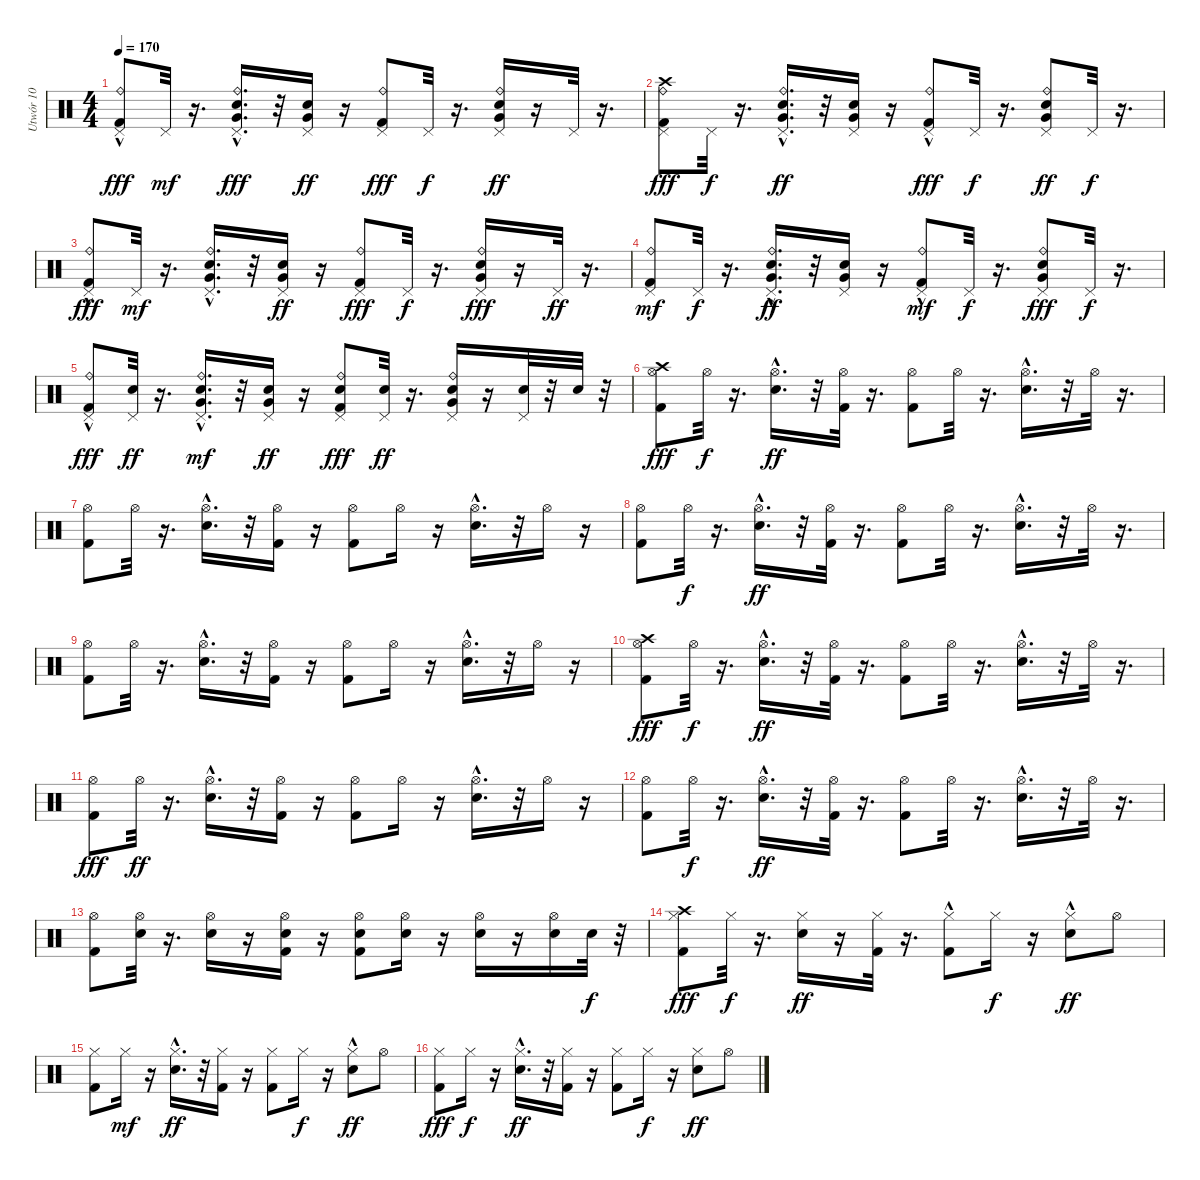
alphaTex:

\track ("Utwór 10" "Utwór 10") {instrument percussion}
\staff {score}
\articulation defaults
\ts (4 4)
\tempo 170
\clef neutral
\ks c
("Kick (hit) 2"{hac} "Pedal Hi-Hat (hit)" "Ride (bell)"{hac}).8{dy fff} "Pedal Hi-Hat (hit)".32{dy mf} r.16{d} ("Very Low Tom (hit)" "Snare (hit) 2" "Pedal Hi-Hat (hit)" "Ride (bell)"{hac}).16{d dy fff} r.32 ("Snare (hit) 2" "Pedal Hi-Hat (hit)" "Very Low Tom (hit)").16{dy ff} r.16 ("Ride (bell)" "Pedal Hi-Hat (hit)" "Kick (hit) 2").8{dy fff} "Pedal Hi-Hat (hit)".32{dy f} r.16{d} ("Pedal Hi-Hat (hit)" "Ride (bell)" "Snare (hit) 2" "Very Low Tom (hit)").16{dy ff} r.16 "Pedal Hi-Hat (hit)".32 r.16{d} |
("Crash high (hit)" "Kick (hit) 2" "Pedal Hi-Hat (hit)" "Ride (bell)").8{dy fff} "Pedal Hi-Hat (hit)".32{dy f} r.16{d} ("Ride (bell)"{hac} "Very Low Tom (hit)" "Pedal Hi-Hat (hit)" "Snare (hit) 2").16{d dy ff} r.32 ("Pedal Hi-Hat (hit)" "Snare (hit) 2" "Very Low Tom (hit)").16 r.16 ("Kick (hit) 2" "Pedal Hi-Hat (hit)" "Ride (bell)"{hac}).8{dy fff} "Pedal Hi-Hat (hit)".32{dy f} r.16{d} ("Pedal Hi-Hat (hit)" "Very Low Tom (hit)" "Ride (bell)" "Snare (hit) 2").8{dy ff} "Pedal Hi-Hat (hit)".32{dy f} r.16{d} |
("Pedal Hi-Hat (hit)" "Kick (hit) 2"{hac} "Ride (bell)"{hac}).8{dy fff} "Pedal Hi-Hat (hit)".32{dy mf} r.16{d} ("Snare (hit) 2" "Pedal Hi-Hat (hit)" "Ride (bell)"{hac} "Very Low Tom (hit)").16{d} r.32 ("Snare (hit) 2" "Very Low Tom (hit)" "Pedal Hi-Hat (hit)").16{dy ff} r.16 ("Ride (bell)" "Kick (hit) 2" "Pedal Hi-Hat (hit)").8{dy fff} "Pedal Hi-Hat (hit)".32{dy f} r.16{d} ("Snare (hit) 2" "Pedal Hi-Hat (hit)" "Very Low Tom (hit)" "Ride (bell)").16{dy fff} r.16 "Pedal Hi-Hat (hit)".32{dy ff} r.16{d} |
("Ride (bell)" "Kick (hit) 2" "Pedal Hi-Hat (hit)").8{dy mf} "Pedal Hi-Hat (hit)".32{dy f} r.16{d} ("Snare (hit) 2" "Very Low Tom (hit)" "Ride (bell)"{hac} "Pedal Hi-Hat (hit)").16{d dy ff} r.32 ("Very Low Tom (hit)" "Pedal Hi-Hat (hit)" "Snare (hit) 2").16 r.16 ("Ride (bell)"{hac} "Kick (hit) 2" "Pedal Hi-Hat (hit)").8{dy mf} "Pedal Hi-Hat (hit)".32{dy f} r.16{d} ("Snare (hit) 2" "Pedal Hi-Hat (hit)" "Very Low Tom (hit)" "Ride (bell)").8{dy fff} "Pedal Hi-Hat (hit)".32{dy f} r.16{d} |
("Kick (hit) 2"{hac} "Ride (bell)"{hac} "Pedal Hi-Hat (hit)").8{dy fff} ("Pedal Hi-Hat (hit)" "Snare (hit) 2").32{dy ff} r.16{d} ("Snare (hit) 2" "Ride (bell)"{hac} "Pedal Hi-Hat (hit)" "Very Low Tom (hit)").16{d dy mf} r.32 ("Snare (hit) 2" "Pedal Hi-Hat (hit)" "Very Low Tom (hit)").16{dy ff} r.16 ("Kick (hit) 2" "Snare (hit) 2" "Ride (bell)" "Pedal Hi-Hat (hit)").8{dy fff} ("Snare (hit) 2" "Pedal Hi-Hat (hit)").32{dy ff} r.16{d} ("Pedal Hi-Hat (hit)" "Ride (bell)" "Very Low Tom (hit)" "Snare (hit) 2").16 r.16 ("Pedal Hi-Hat (hit)" "Snare (hit) 2").32 r.32 "Snare (hit) 2".32 r.32 |
("Crash high (hit)" "Hi-Hat (open)" "Kick (hit) 2").8{dy fff} "Hi-Hat (open)".32{dy f} r.16{d} ("Snare (hit) 2"{hac} "Hi-Hat (open)").16{d dy ff} r.32 ("Hi-Hat (open)" "Kick (hit) 2").32 r.16{d} ("Hi-Hat (open)" "Kick (hit) 2").8 "Hi-Hat (open)".32 r.16{d} ("Snare (hit) 2"{hac} "Hi-Hat (open)").16{d} r.32 "Hi-Hat (open)".32 r.16{d} |
("Kick (hit) 2" "Hi-Hat (open)").8 "Hi-Hat (open)".32 r.16{d} ("Snare (hit) 2"{hac} "Hi-Hat (open)").16{d} r.32 ("Hi-Hat (open)" "Kick (hit) 2").16 r.16 ("Kick (hit) 2" "Hi-Hat (open)").8 "Hi-Hat (open)".16 r.16 ("Hi-Hat (open)" "Snare (hit) 2"{hac}).16{d} r.32 "Hi-Hat (open)".16 r.16 |
("Kick (hit) 2" "Hi-Hat (open)").8 "Hi-Hat (open)".32{dy f} r.16{d} ("Snare (hit) 2"{hac} "Hi-Hat (open)").16{d dy ff} r.32 ("Kick (hit) 2" "Hi-Hat (open)").32 r.16{d} ("Kick (hit) 2" "Hi-Hat (open)").8 "Hi-Hat (open)".32 r.16{d} ("Snare (hit) 2"{hac} "Hi-Hat (open)").16{d} r.32 "Hi-Hat (open)".32 r.16{d} |
("Kick (hit) 2" "Hi-Hat (open)").8 "Hi-Hat (open)".32 r.16{d} ("Snare (hit) 2"{hac} "Hi-Hat (open)").16{d} r.32 ("Kick (hit) 2" "Hi-Hat (open)").16 r.16 ("Kick (hit) 2" "Hi-Hat (open)").8 "Hi-Hat (open)".16 r.16 ("Hi-Hat (open)" "Snare (hit) 2"{hac}).16{d} r.32 "Hi-Hat (open)".16 r.16 |
("Crash high (hit)" "Hi-Hat (open)" "Kick (hit) 2").8{dy fff} "Hi-Hat (open)".32{dy f} r.16{d} ("Snare (hit) 2"{hac} "Hi-Hat (open)").16{d dy ff} r.32 ("Hi-Hat (open)" "Kick (hit) 2").32 r.16{d} ("Hi-Hat (open)" "Kick (hit) 2").8 "Hi-Hat (open)".32 r.16{d} ("Hi-Hat (open)" "Snare (hit) 2"{hac}).16{d} r.32 "Hi-Hat (open)".32 r.16{d} |
("Hi-Hat (open)" "Kick (hit) 2").8{dy fff} "Hi-Hat (open)".32{dy ff} r.16{d} ("Hi-Hat (open)" "Snare (hit) 2"{hac}).16{d} r.32 ("Kick (hit) 2" "Hi-Hat (open)").16 r.16 ("Kick (hit) 2" "Hi-Hat (open)").8 "Hi-Hat (open)".16 r.16 ("Snare (hit) 2"{hac} "Hi-Hat (open)").16{d} r.32 "Hi-Hat (open)".16 r.16 |
("Kick (hit) 2" "Hi-Hat (open)").8 "Hi-Hat (open)".32{dy f} r.16{d} ("Snare (hit) 2"{hac} "Hi-Hat (open)").16{d dy ff} r.32 ("Hi-Hat (open)" "Kick (hit) 2").32 r.16{d} ("Kick (hit) 2" "Hi-Hat (open)").8 "Hi-Hat (open)".32 r.16{d} ("Hi-Hat (open)" "Snare (hit) 2"{hac}).16{d} r.32 "Hi-Hat (open)".32 r.16{d} |
("Kick (hit) 2" "Hi-Hat (open)").8 ("Snare (hit) 2" "Hi-Hat (open)").32 r.16{d} ("Hi-Hat (open)" "Snare (hit) 2").16 r.16 ("Kick (hit) 2" "Snare (hit) 2" "Hi-Hat (open)").16 r.16 ("Snare (hit) 2" "Kick (hit) 2" "Hi-Hat (open)").8 ("Hi-Hat (open)" "Snare (hit) 2").16 r.16 ("Hi-Hat (open)" "Snare (hit) 2").16 r.16 ("Hi-Hat (open)" "Snare (hit) 2").16 "Snare (hit) 2".32{dy f} r.32 |
("Hi-Hat (closed)" "Kick (hit) 2" "Crash high (hit)").8{dy fff} "Hi-Hat (closed)".32{dy f} r.16{d} ("Snare (hit) 2" "Hi-Hat (closed)").16{dy ff} r.16 ("Kick (hit) 2" "Hi-Hat (closed)").32 r.16{d} ("Kick (hit) 2"{hac} "Hi-Hat (closed)").8 "Hi-Hat (closed)".16{dy f} r.16 ("Snare (hit) 2" "Hi-Hat (closed)"{hac}).8{dy ff} "Hi-Hat (open)".8 |
("Hi-Hat (closed)" "Kick (hit) 2").8 "Hi-Hat (closed)".16{dy mf} r.16 ("Hi-Hat (closed)" "Snare (hit) 2"{hac}).16{d dy ff} r.32 ("Kick (hit) 2" "Hi-Hat (closed)").16 r.16 ("Kick (hit) 2" "Hi-Hat (closed)").8 "Hi-Hat (closed)".16{dy f} r.16 ("Hi-Hat (closed)" "Snare (hit) 2"{hac}).8{dy ff} "Hi-Hat (open)".8 |
("Hi-Hat (closed)" "Kick (hit) 2").8{dy fff} "Hi-Hat (closed)".16{dy f} r.16 ("Snare (hit) 2"{hac} "Hi-Hat (closed)").16{d dy ff} r.32 ("Hi-Hat (closed)" "Kick (hit) 2").16 r.16 ("Kick (hit) 2" "Hi-Hat (closed)").8 "Hi-Hat (closed)".16{dy f} r.16 ("Snare (hit) 2" "Hi-Hat (closed)").8{dy ff} "Hi-Hat (open)".8
